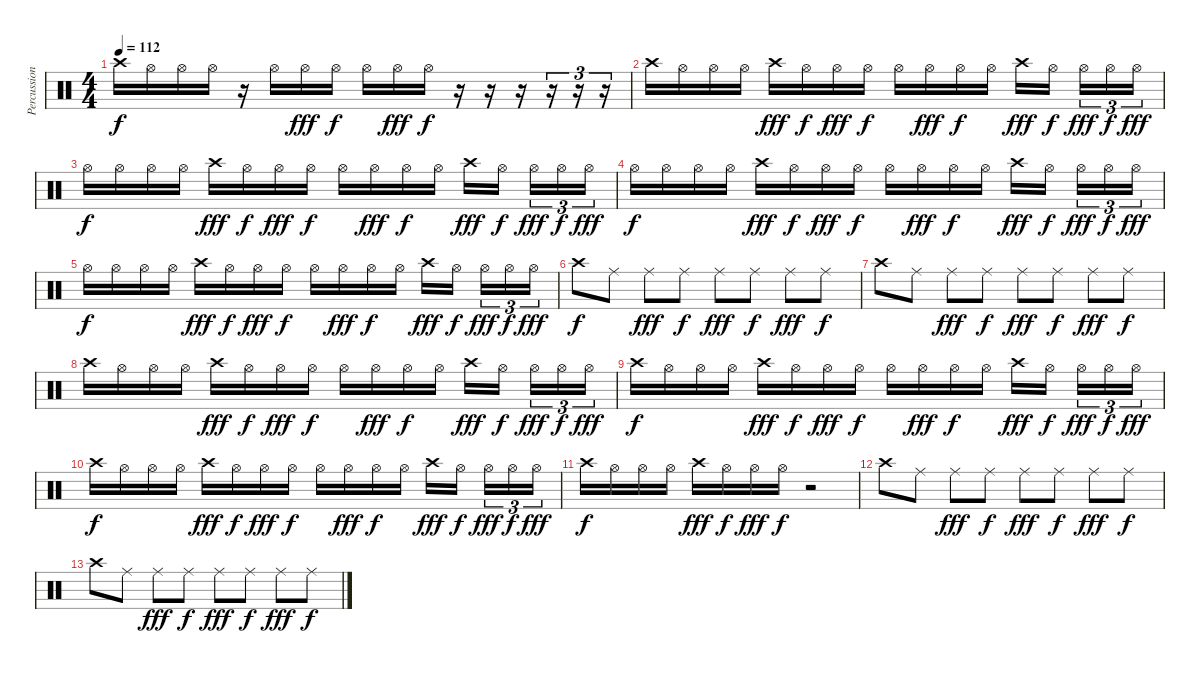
\track ("Percussion" "Percussion") {instrument percussion}
\staff {score}
\articulation defaults
\ts (4 4)
\tempo 112
\clef neutral
\ks c "Crash high (hit)".16{dy f} "Hi-Hat (open)".16 "Hi-Hat (open)".16 "Hi-Hat (open)".16
r.16 "Hi-Hat (open)".16 "Hi-Hat (open)".16{dy fff} "Hi-Hat (open)".16{dy f} "Hi-Hat (open)".16 "Hi-Hat (open)".16{dy fff} "Hi-Hat (open)".16{dy f} r.16 r.16 r.16 r.16{tu (3 2)} r.16{tu (3 2)} r.16{tu (3 2)} |
"Crash high (hit)".16 "Hi-Hat (open)".16 "Hi-Hat (open)".16 "Hi-Hat (open)".16 "Crash high (hit)".16{dy fff} "Hi-Hat (open)".16{dy f} "Hi-Hat (open)".16{dy fff} "Hi-Hat (open)".16{dy f} "Hi-Hat (open)".16 "Hi-Hat (open)".16{dy fff} "Hi-Hat (open)".16{dy f} "Hi-Hat (open)".16 "Crash high (hit)".16{dy fff} "Hi-Hat (open)".16{dy f beam splitsecondary} "Hi-Hat (open)".16{tu (3 2) dy fff} "Hi-Hat (open)".16{tu (3 2) dy f} "Hi-Hat (open)".16{tu (3 2) dy fff} |
"Hi-Hat (open)".16{dy f} "Hi-Hat (open)".16 "Hi-Hat (open)".16 "Hi-Hat (open)".16 "Crash high (hit)".16{dy fff} "Hi-Hat (open)".16{dy f} "Hi-Hat (open)".16{dy fff} "Hi-Hat (open)".16{dy f} "Hi-Hat (open)".16 "Hi-Hat (open)".16{dy fff} "Hi-Hat (open)".16{dy f} "Hi-Hat (open)".16 "Crash high (hit)".16{dy fff} "Hi-Hat (open)".16{dy f beam splitsecondary} "Hi-Hat (open)".16{tu (3 2) dy fff} "Hi-Hat (open)".16{tu (3 2) dy f} "Hi-Hat (open)".16{tu (3 2) dy fff} |
"Hi-Hat (open)".16{dy f} "Hi-Hat (open)".16 "Hi-Hat (open)".16 "Hi-Hat (open)".16 "Crash high (hit)".16{dy fff} "Hi-Hat (open)".16{dy f} "Hi-Hat (open)".16{dy fff} "Hi-Hat (open)".16{dy f} "Hi-Hat (open)".16 "Hi-Hat (open)".16{dy fff} "Hi-Hat (open)".16{dy f} "Hi-Hat (open)".16 "Crash high (hit)".16{dy fff} "Hi-Hat (open)".16{dy f beam splitsecondary} "Hi-Hat (open)".16{tu (3 2) dy fff} "Hi-Hat (open)".16{tu (3 2) dy f} "Hi-Hat (open)".16{tu (3 2) dy fff} |
"Hi-Hat (open)".16{dy f} "Hi-Hat (open)".16 "Hi-Hat (open)".16 "Hi-Hat (open)".16 "Crash high (hit)".16{dy fff} "Hi-Hat (open)".16{dy f} "Hi-Hat (open)".16{dy fff} "Hi-Hat (open)".16{dy f} "Hi-Hat (open)".16 "Hi-Hat (open)".16{dy fff} "Hi-Hat (open)".16{dy f} "Hi-Hat (open)".16 "Crash high (hit)".16{dy fff} "Hi-Hat (open)".16{dy f beam splitsecondary} "Hi-Hat (open)".16{tu (3 2) dy fff} "Hi-Hat (open)".16{tu (3 2) dy f} "Hi-Hat (open)".16{tu (3 2) dy fff} |
"Crash high (hit)".8{dy f} "Ride (middle)".8 "Ride (middle)".8{dy fff} "Ride (middle)".8{dy f} "Ride (middle)".8{dy fff} "Ride (middle)".8{dy f} "Ride (middle)".8{dy fff} "Ride (middle)".8{dy f} |
"Crash high (hit)".8 "Ride (middle)".8 "Ride (middle)".8{dy fff} "Ride (middle)".8{dy f} "Ride (middle)".8{dy fff} "Ride (middle)".8{dy f} "Ride (middle)".8{dy fff} "Ride (middle)".8{dy f} |
"Crash high (hit)".16 "Hi-Hat (open)".16 "Hi-Hat (open)".16 "Hi-Hat (open)".16 "Crash high (hit)".16{dy fff} "Hi-Hat (open)".16{dy f} "Hi-Hat (open)".16{dy fff} "Hi-Hat (open)".16{dy f} "Hi-Hat (open)".16 "Hi-Hat (open)".16{dy fff} "Hi-Hat (open)".16{dy f} "Hi-Hat (open)".16 "Crash high (hit)".16{dy fff} "Hi-Hat (open)".16{dy f beam splitsecondary} "Hi-Hat (open)".16{tu (3 2) dy fff} "Hi-Hat (open)".16{tu (3 2) dy f} "Hi-Hat (open)".16{tu (3 2) dy fff} |
"Crash high (hit)".16{dy f} "Hi-Hat (open)".16 "Hi-Hat (open)".16 "Hi-Hat (open)".16 "Crash high (hit)".16{dy fff} "Hi-Hat (open)".16{dy f} "Hi-Hat (open)".16{dy fff} "Hi-Hat (open)".16{dy f} "Hi-Hat (open)".16 "Hi-Hat (open)".16{dy fff} "Hi-Hat (open)".16{dy f} "Hi-Hat (open)".16 "Crash high (hit)".16{dy fff} "Hi-Hat (open)".16{dy f beam splitsecondary} "Hi-Hat (open)".16{tu (3 2) dy fff} "Hi-Hat (open)".16{tu (3 2) dy f} "Hi-Hat (open)".16{tu (3 2) dy fff} |
"Crash high (hit)".16{dy f} "Hi-Hat (open)".16 "Hi-Hat (open)".16 "Hi-Hat (open)".16 "Crash high (hit)".16{dy fff} "Hi-Hat (open)".16{dy f} "Hi-Hat (open)".16{dy fff} "Hi-Hat (open)".16{dy f} "Hi-Hat (open)".16 "Hi-Hat (open)".16{dy fff} "Hi-Hat (open)".16{dy f} "Hi-Hat (open)".16 "Crash high (hit)".16{dy fff} "Hi-Hat (open)".16{dy f beam splitsecondary} "Hi-Hat (open)".16{tu (3 2) dy fff} "Hi-Hat (open)".16{tu (3 2) dy f} "Hi-Hat (open)".16{tu (3 2) dy fff} |
"Crash high (hit)".16{dy f} "Hi-Hat (open)".16 "Hi-Hat (open)".16 "Hi-Hat (open)".16 "Crash high (hit)".16{dy fff} "Hi-Hat (open)".16{dy f} "Hi-Hat (open)".16{dy fff} "Hi-Hat (open)".16{dy f} r.2 |
"Crash high (hit)".8 "Ride (middle)".8 "Ride (middle)".8{dy fff} "Ride (middle)".8{dy f} "Ride (middle)".8{dy fff} "Ride (middle)".8{dy f} "Ride (middle)".8{dy fff} "Ride (middle)".8{dy f} |
"Crash high (hit)".8 "Ride (middle)".8 "Ride (middle)".8{dy fff} "Ride (middle)".8{dy f} "Ride (middle)".8{dy fff} "Ride (middle)".8{dy f} "Ride (middle)".8{dy fff} "Ride (middle)".8{dy f}
